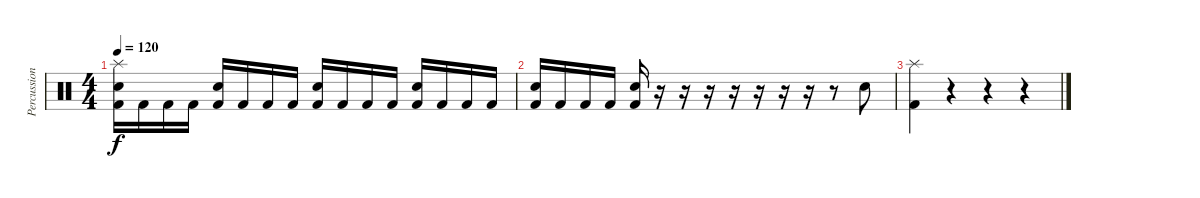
\track ("Percussion" "Percussion") {instrument percussion}
\staff {score}
\articulation defaults
\ts (4 4)
\tempo 120
\clef neutral
\ks c
("Splash (hit)" "Electric Snare (hit)" "Kick (hit) 2").16{dy f} "Kick (hit) 2".16 "Kick (hit) 2".16 "Kick (hit) 2".16 ("Electric Snare (hit)" "Kick (hit) 2").16 "Kick (hit) 2".16 "Kick (hit) 2".16 "Kick (hit) 2".16 ("Electric Snare (hit)" "Kick (hit) 2").16 "Kick (hit) 2".16 "Kick (hit) 2".16 "Kick (hit) 2".16 ("Electric Snare (hit)" "Kick (hit) 2").16 "Kick (hit) 2".16 "Kick (hit) 2".16 "Kick (hit) 2".16 |
("Electric Snare (hit)" "Kick (hit) 2").16 "Kick (hit) 2".16 "Kick (hit) 2".16 "Kick (hit) 2".16 ("Electric Snare (hit)" "Kick (hit) 2").16 r.16 r.16 r.16 r.16 r.16 r.16 r.16 r.8 "Electric Snare (hit)".8 |
("Splash (hit)" "Kick (hit) 2").4 r.4 r.4 r.4
